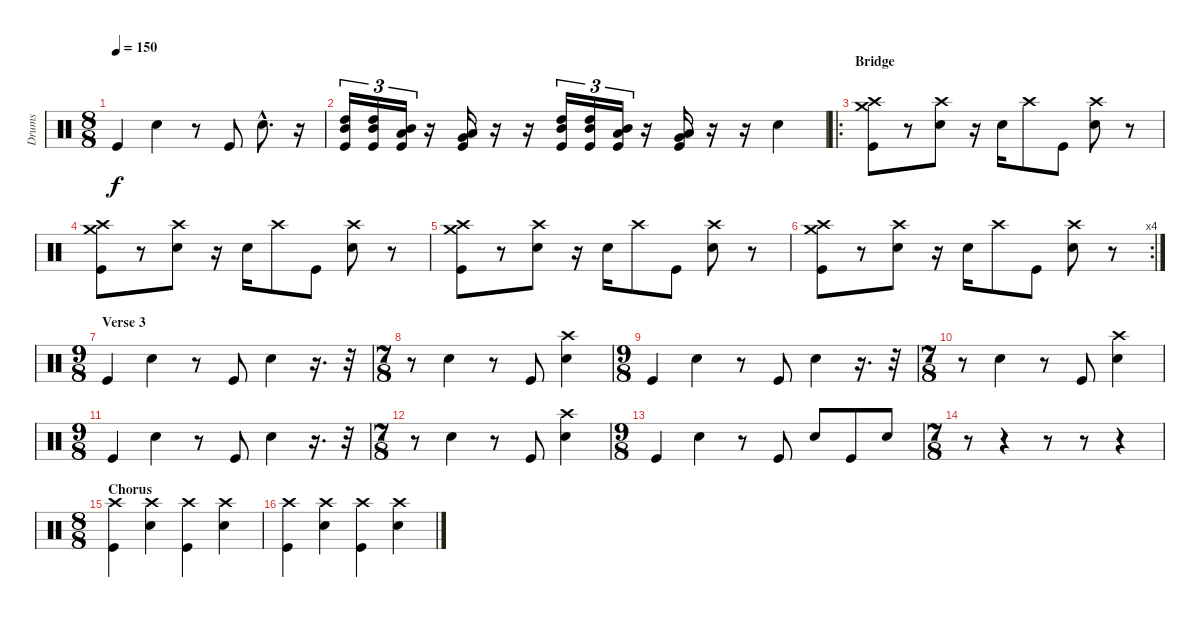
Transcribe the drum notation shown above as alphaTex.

\track ("Drums" "Drums") {instrument percussion}
\staff {score}
\articulation defaults
\ts (8 8)
\tempo 150
\clef neutral
\ks c "Kick (hit)".4{dy f} "Snare (hit) 2".4
r.8 "Kick (hit)".8 "Snare (hit) 2"{hac}.8{d} r.16 |
("High Tom (hit)" "Mid Tom (hit)" "Kick (hit)").16{tu (3 2)} ("High Tom (hit)" "Mid Tom (hit)" "Kick (hit)").16{tu (3 2)} ("Mid Tom (hit)" "Low Tom (hit)" "Kick (hit)").16{tu (3 2)} r.16 ("Low Tom (hit)" "Very Low Tom (hit)" "Kick (hit)").16 r.16 r.16 ("High Tom (hit)" "Mid Tom (hit)" "Kick (hit)").16{tu (3 2)} ("High Tom (hit)" "Mid Tom (hit)" "Kick (hit)").16{tu (3 2)} ("Mid Tom (hit)" "Low Tom (hit)" "Kick (hit)").16{tu (3 2)} r.16 ("Low Tom (hit)" "Very Low Tom (hit)" "Kick (hit)").16 r.16 r.16 "Snare (hit) 2".4 |
\ro
\section ("" "Bridge")
("Crash high (hit)" "Crash medium (hit)" "Kick (hit)").8 r.8 ("Crash high (hit)" "Snare (hit) 2").8 r.16 "Snare (hit) 2".16 "Crash high (hit)".8 "Kick (hit)".8 ("Crash high (hit)" "Snare (hit) 2").8 r.8 |
("Crash high (hit)" "Crash medium (hit)" "Kick (hit)").8 r.8 ("Crash high (hit)" "Snare (hit) 2").8 r.16 "Snare (hit) 2".16 "Crash high (hit)".8 "Kick (hit)".8 ("Crash high (hit)" "Snare (hit) 2").8 r.8 |
("Crash high (hit)" "Crash medium (hit)" "Kick (hit)").8 r.8 ("Crash high (hit)" "Snare (hit) 2").8 r.16 "Snare (hit) 2".16 "Crash high (hit)".8 "Kick (hit)".8 ("Crash high (hit)" "Snare (hit) 2").8 r.8 |
\rc 4
("Crash high (hit)" "Crash medium (hit)" "Kick (hit)").8 r.8 ("Crash high (hit)" "Snare (hit) 2").8 r.16 "Snare (hit) 2".16 "Crash high (hit)".8 "Kick (hit)".8 ("Crash high (hit)" "Snare (hit) 2").8 r.8 |
\ts (9 8)
\section ("" "Verse 3")
"Kick (hit)".4 "Snare (hit) 2".4 r.8 "Kick (hit)".8 "Snare (hit) 2".4 r.16{d} r.32 |
\ts (7 8)
r.8 "Snare (hit) 2".4 r.8 "Kick (hit)".8 ("Crash high (hit)" "Snare (hit) 2").4 |
\ts (9 8)
"Kick (hit)".4 "Snare (hit) 2".4 r.8 "Kick (hit)".8 "Snare (hit) 2".4 r.16{d} r.32 |
\ts (7 8)
r.8 "Snare (hit) 2".4 r.8 "Kick (hit)".8 ("Crash high (hit)" "Snare (hit) 2").4 |
\ts (9 8)
"Kick (hit)".4 "Snare (hit) 2".4 r.8 "Kick (hit)".8 "Snare (hit) 2".4 r.16{d} r.32 |
\ts (7 8)
r.8 "Snare (hit) 2".4 r.8 "Kick (hit)".8 ("Crash high (hit)" "Snare (hit) 2").4 |
\ts (9 8)
"Kick (hit)".4 "Snare (hit) 2".4 r.8 "Kick (hit)".8 "Snare (hit) 2".8 "Kick (hit)".8 "Snare (hit) 2".8 |
\ts (7 8)
r.8 r.4 r.8 r.8 r.4 |
\ts (8 8)
\section ("" "Chorus")
("Crash high (hit)" "Kick (hit)").4 ("Crash high (hit)" "Snare (hit) 2").4 ("Crash high (hit)" "Kick (hit)").4 ("Crash high (hit)" "Snare (hit) 2").4 |
("Crash high (hit)" "Kick (hit)").4 ("Crash high (hit)" "Snare (hit) 2").4 ("Crash high (hit)" "Kick (hit)").4 ("Crash high (hit)" "Snare (hit) 2").4
